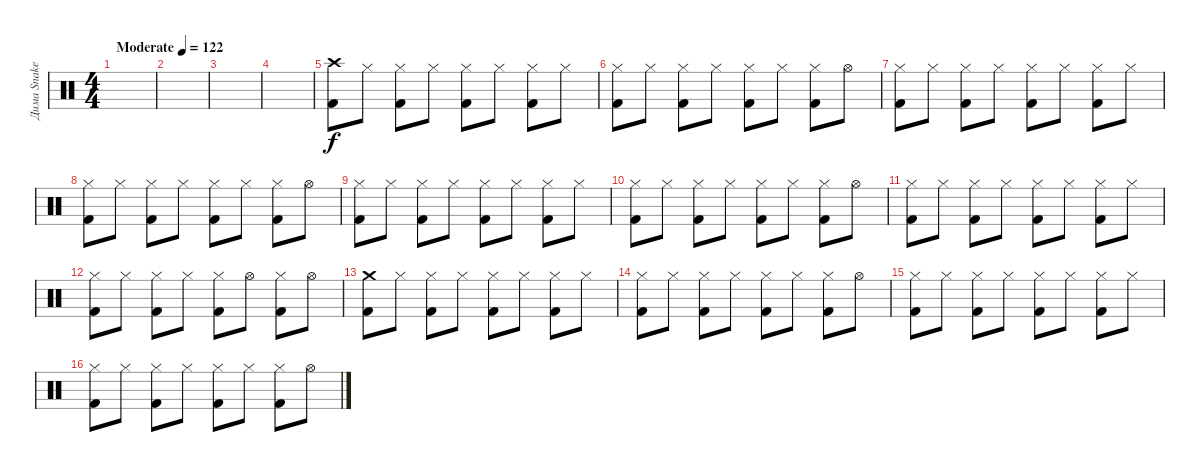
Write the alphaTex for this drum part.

\track ("Дима Snake Хакимов" "Дима Snake") {instrument percussion}
\staff {score}
\articulation defaults
\ts (4 4)
\tempo (122 "Moderate")
\clef neutral
\ks c
|
|
|
|
("Crash high (hit)" "Kick (hit) 2").8 "Hi-Hat (closed)".8 ("Hi-Hat (closed)" "Kick (hit) 2").8 "Hi-Hat (closed)".8 ("Hi-Hat (closed)" "Kick (hit) 2").8 "Hi-Hat (closed)".8 ("Hi-Hat (closed)" "Kick (hit) 2").8 "Hi-Hat (closed)".8 |
("Hi-Hat (closed)" "Kick (hit) 2").8 "Hi-Hat (closed)".8 ("Hi-Hat (closed)" "Kick (hit) 2").8 "Hi-Hat (closed)".8 ("Hi-Hat (closed)" "Kick (hit) 2").8 "Hi-Hat (closed)".8 ("Hi-Hat (closed)" "Kick (hit) 2").8 "Hi-Hat (open)".8 |
("Hi-Hat (closed)" "Kick (hit) 2").8 "Hi-Hat (closed)".8 ("Hi-Hat (closed)" "Kick (hit) 2").8 "Hi-Hat (closed)".8 ("Hi-Hat (closed)" "Kick (hit) 2").8 "Hi-Hat (closed)".8 ("Hi-Hat (closed)" "Kick (hit) 2").8 "Hi-Hat (closed)".8 |
("Hi-Hat (closed)" "Kick (hit) 2").8 "Hi-Hat (closed)".8 ("Hi-Hat (closed)" "Kick (hit) 2").8 "Hi-Hat (closed)".8 ("Hi-Hat (closed)" "Kick (hit) 2").8 "Hi-Hat (closed)".8 ("Hi-Hat (closed)" "Kick (hit) 2").8 "Hi-Hat (open)".8 |
("Hi-Hat (closed)" "Kick (hit) 2").8 "Hi-Hat (closed)".8 ("Hi-Hat (closed)" "Kick (hit) 2").8 "Hi-Hat (closed)".8 ("Hi-Hat (closed)" "Kick (hit) 2").8 "Hi-Hat (closed)".8 ("Hi-Hat (closed)" "Kick (hit) 2").8 "Hi-Hat (closed)".8 |
("Hi-Hat (closed)" "Kick (hit) 2").8 "Hi-Hat (closed)".8 ("Hi-Hat (closed)" "Kick (hit) 2").8 "Hi-Hat (closed)".8 ("Hi-Hat (closed)" "Kick (hit) 2").8 "Hi-Hat (closed)".8 ("Hi-Hat (closed)" "Kick (hit) 2").8 "Hi-Hat (open)".8 |
("Hi-Hat (closed)" "Kick (hit) 2").8 "Hi-Hat (closed)".8 ("Hi-Hat (closed)" "Kick (hit) 2").8 "Hi-Hat (closed)".8 ("Hi-Hat (closed)" "Kick (hit) 2").8 "Hi-Hat (closed)".8 ("Hi-Hat (closed)" "Kick (hit) 2").8 "Hi-Hat (closed)".8 |
("Hi-Hat (closed)" "Kick (hit) 2").8 "Hi-Hat (closed)".8 ("Hi-Hat (closed)" "Kick (hit) 2").8 "Hi-Hat (closed)".8 ("Hi-Hat (closed)" "Kick (hit) 2").8 "Hi-Hat (open)".8 ("Hi-Hat (closed)" "Kick (hit) 2").8 "Hi-Hat (open)".8 |
("Crash medium (hit)" "Kick (hit) 2").8 "Hi-Hat (closed)".8 ("Hi-Hat (closed)" "Kick (hit) 2").8 "Hi-Hat (closed)".8 ("Hi-Hat (closed)" "Kick (hit) 2").8 "Hi-Hat (closed)".8 ("Hi-Hat (closed)" "Kick (hit) 2").8 "Hi-Hat (closed)".8 |
("Hi-Hat (closed)" "Kick (hit) 2").8 "Hi-Hat (closed)".8 ("Hi-Hat (closed)" "Kick (hit) 2").8 "Hi-Hat (closed)".8 ("Hi-Hat (closed)" "Kick (hit) 2").8 "Hi-Hat (closed)".8 ("Hi-Hat (closed)" "Kick (hit) 2").8 "Hi-Hat (open)".8 |
("Hi-Hat (closed)" "Kick (hit) 2").8 "Hi-Hat (closed)".8 ("Hi-Hat (closed)" "Kick (hit) 2").8 "Hi-Hat (closed)".8 ("Hi-Hat (closed)" "Kick (hit) 2").8 "Hi-Hat (closed)".8 ("Hi-Hat (closed)" "Kick (hit) 2").8 "Hi-Hat (closed)".8 |
("Hi-Hat (closed)" "Kick (hit) 2").8 "Hi-Hat (closed)".8 ("Hi-Hat (closed)" "Kick (hit) 2").8 "Hi-Hat (closed)".8 ("Hi-Hat (closed)" "Kick (hit) 2").8 "Hi-Hat (closed)".8 ("Hi-Hat (closed)" "Kick (hit) 2").8 "Hi-Hat (open)".8
